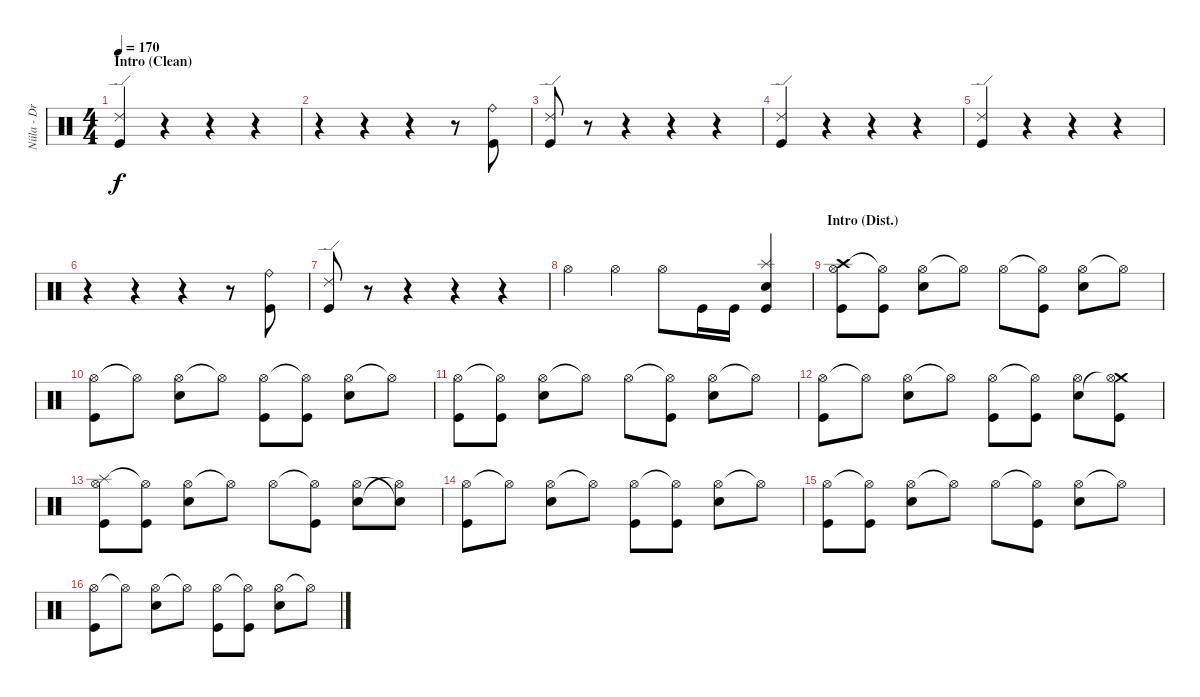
\track ("Niila - Drums" "Niila - Dr") {instrument percussion}
\staff {score}
\articulation defaults
\ts (4 4)
\section ("" "Intro (Clean)")
\tempo 170
\clef neutral
\ks c
("Ride (edge) 2" "Kick (hit)").4{dy f} r.4 r.4 r.4 |
r.4 r.4 r.4 r.8 ("Ride (bell)" "Kick (hit)").8 |
("Ride (edge) 2" "Kick (hit)").8 r.8 r.4 r.4 r.4 |
("Ride (edge) 2" "Kick (hit)").4 r.4 r.4 r.4 |
("Ride (edge) 2" "Kick (hit)").4 r.4 r.4 r.4 |
r.4 r.4 r.4 r.8 ("Ride (bell)" "Kick (hit)").8 |
("Ride (edge) 2" "Kick (hit)").8 r.8 r.4 r.4 r.4 |
"Hi-Hat (open)".4 "Hi-Hat (open)".4 "Hi-Hat (open)".8 "Kick (hit)".16 "Kick (hit)".16 ("Splash (hit)" "Snare (hit) 2" "Kick (hit)").4 |
\section ("" "Intro (Dist.)")
("Crash high (hit)" "Hi-Hat (open)" "Kick (hit)").8 ("Hi-Hat (open)"{t} "Kick (hit)").8 ("Hi-Hat (open)" "Snare (hit) 2").8 "Hi-Hat (open)"{t}.8 "Hi-Hat (open)".8 ("Hi-Hat (open)"{t} "Kick (hit)").8 ("Hi-Hat (open)" "Snare (hit) 2").8 "Hi-Hat (open)"{t}.8 |
("Hi-Hat (open)" "Kick (hit)").8 "Hi-Hat (open)"{t}.8 ("Hi-Hat (open)" "Snare (hit) 2").8 "Hi-Hat (open)"{t}.8 ("Hi-Hat (open)" "Kick (hit)").8 ("Hi-Hat (open)"{t} "Kick (hit)").8 ("Hi-Hat (open)" "Snare (hit) 2").8 "Hi-Hat (open)"{t}.8 |
("Hi-Hat (open)" "Kick (hit)").8 ("Hi-Hat (open)"{t} "Kick (hit)").8 ("Hi-Hat (open)" "Snare (hit) 2").8 "Hi-Hat (open)"{t}.8 "Hi-Hat (open)".8 ("Hi-Hat (open)"{t} "Kick (hit)").8 ("Hi-Hat (open)" "Snare (hit) 2").8 "Hi-Hat (open)"{t}.8 |
("Hi-Hat (open)" "Kick (hit)").8 "Hi-Hat (open)"{t}.8 ("Hi-Hat (open)" "Snare (hit) 2").8 "Hi-Hat (open)"{t}.8 ("Hi-Hat (open)" "Kick (hit)").8 ("Hi-Hat (open)"{t} "Kick (hit)").8 ("Hi-Hat (open)" "Snare (hit) 2").8 ("Crash medium (hit)" "Hi-Hat (open)"{t} "Kick (hit)").8 |
("Splash (hit)" "Hi-Hat (open)" "Kick (hit)").8 ("Hi-Hat (open)"{t} "Kick (hit)").8 ("Hi-Hat (open)" "Snare (hit) 2").8 "Hi-Hat (open)"{t}.8 "Hi-Hat (open)".8 ("Hi-Hat (open)"{t} "Kick (hit)").8 ("Hi-Hat (open)" "Snare (hit) 2").8 ("Snare (hit)"{t} "Hi-Hat (open)"{t}).8 |
("Hi-Hat (open)" "Kick (hit)").8 "Hi-Hat (open)"{t}.8 ("Hi-Hat (open)" "Snare (hit) 2").8 "Hi-Hat (open)"{t}.8 ("Hi-Hat (open)" "Kick (hit)").8 ("Hi-Hat (open)"{t} "Kick (hit)").8 ("Hi-Hat (open)" "Snare (hit) 2").8 "Hi-Hat (open)"{t}.8 |
("Hi-Hat (open)" "Kick (hit)").8 ("Hi-Hat (open)"{t} "Kick (hit)").8 ("Hi-Hat (open)" "Snare (hit) 2").8 "Hi-Hat (open)"{t}.8 "Hi-Hat (open)".8 ("Hi-Hat (open)"{t} "Kick (hit)").8 ("Hi-Hat (open)" "Snare (hit) 2").8 "Hi-Hat (open)"{t}.8 |
("Hi-Hat (open)" "Kick (hit)").8 "Hi-Hat (open)"{t}.8 ("Hi-Hat (open)" "Snare (hit) 2").8 "Hi-Hat (open)"{t}.8 ("Hi-Hat (open)" "Kick (hit)").8 ("Hi-Hat (open)"{t} "Kick (hit)").8 ("Hi-Hat (open)" "Snare (hit) 2").8 "Hi-Hat (open)"{t}.8
